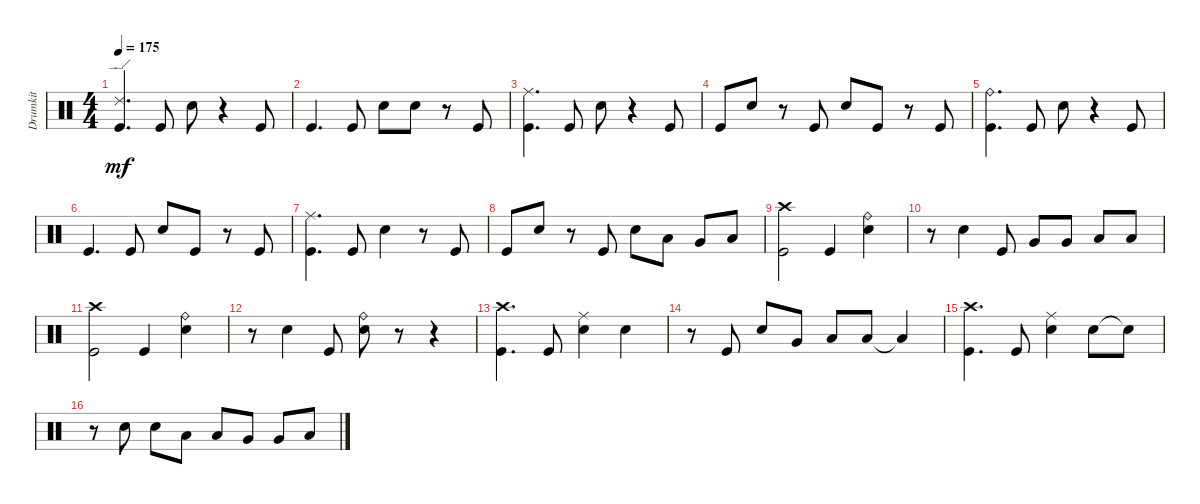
\track ("Drumkit" "Drumkit") {instrument percussion}
\staff {score}
\articulation defaults
\ts (4 4)
\tempo 175
\clef neutral
\ks c
("Kick (hit)" "Ride (edge) 2").4{d dy mf} "Kick (hit)".8 "Snare (hit) 2".8 r.4 "Kick (hit)".8 |
"Kick (hit)".4{d} "Kick (hit)".8 "Snare (hit) 2".8 "Snare (hit) 2".8 r.8 "Kick (hit)".8 |
("Kick (hit)" "Ride (middle)").4{d} "Kick (hit)".8 "Snare (hit) 2".8 r.4 "Kick (hit)".8 |
"Kick (hit)".8 "Snare (hit) 2".8 r.8 "Kick (hit)".8 "Snare (hit) 2".8 "Kick (hit)".8 r.8 "Kick (hit)".8 |
("Kick (hit)" "Ride (bell)").4{d} "Kick (hit)".8 "Snare (hit) 2".8 r.4 "Kick (hit)".8 |
"Kick (hit)".4{d} "Kick (hit)".8 "Snare (hit) 2".8 "Kick (hit)".8 r.8 "Kick (hit)".8 |
("Kick (hit)" "Ride (middle)").4{d} "Kick (hit)".8 "Snare (hit) 2".4 r.8 "Kick (hit)".8 |
"Kick (hit)".8 "Snare (hit) 2".8 r.8 "Kick (hit)".8 "Snare (hit) 2".8 "Low Floor Tom (hit)".8 "Very Low Tom (hit)".8 "Low Tom (hit)".8 |
("Kick (hit)" "Crash high (hit)").2 "Kick (hit)".4 ("Snare (hit) 2" "Ride (bell)").4 |
r.8 "Snare (hit) 2".4 "Kick (hit)".8 "Very Low Tom (hit)".8 "Very Low Tom (hit)".8 "Low Tom (hit)".8 "Low Tom (hit)".8 |
("Kick (hit)" "Crash high (hit)").2 "Kick (hit)".4 ("Snare (hit) 2" "Ride (bell)").4 |
r.8 "Snare (hit) 2".4 "Kick (hit)".8 ("Snare (hit) 2" "Ride (bell)").8 r.8 r.4 |
("Kick (hit)" "Crash high (hit)").4{d} "Kick (hit)".8 ("Snare (hit) 2" "Ride (middle)").4 "Snare (hit) 2".4 |
r.8 "Kick (hit)".8 "Snare (hit) 2".8 "Very Low Tom (hit)".8 "Low Tom (hit)".8 "Low Tom (hit)".8 "Low Tom (hit)"{t}.4 |
("Kick (hit)" "Crash high (hit)").4{d} "Kick (hit)".8 ("Snare (hit) 2" "Ride (middle)").4 "Snare (hit) 2".8 "Snare (hit) 2"{t}.8 |
r.8 "Snare (hit) 2".8 "Snare (hit) 2".8 "Low Tom (hit)".8 "Low Tom (hit)".8 "Very Low Tom (hit)".8 "Very Low Tom (hit)".8 "Low Tom (hit)".8
